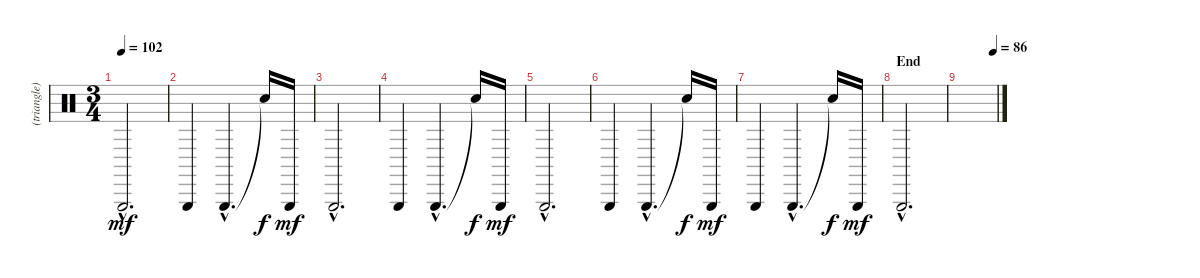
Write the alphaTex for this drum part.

\track ("(triangle)" "(triangle)") {instrument percussion}
\staff {score}
\articulation defaults
\ts (3 4)
\tempo 102
\clef neutral
\ks c "Triangle (hit)"{hac}.2{d dy mf}
|
"Triangle (hit)".4 "Triangle (hit)"{hac}.4{d} "Snare (hit)"{t}.16{dy f} "Triangle (hit)".16{dy mf} |
"Triangle (hit)"{hac}.2{d} |
"Triangle (hit)".4 "Triangle (hit)"{hac}.4{d} "Snare (hit)"{t}.16{dy f} "Triangle (hit)".16{dy mf} |
"Triangle (hit)"{hac}.2{d} |
"Triangle (hit)".4 "Triangle (hit)"{hac}.4{d} "Snare (hit)"{t}.16{dy f} "Triangle (hit)".16{dy mf} |
"Triangle (hit)".4 "Triangle (hit)"{hac}.4{d} "Snare (hit)"{t}.16{dy f} "Triangle (hit)".16{dy mf} |
\section ("" "End")
"Triangle (hit)"{hac}.2{d} |
\tempo (86 0.9166666666666666)
